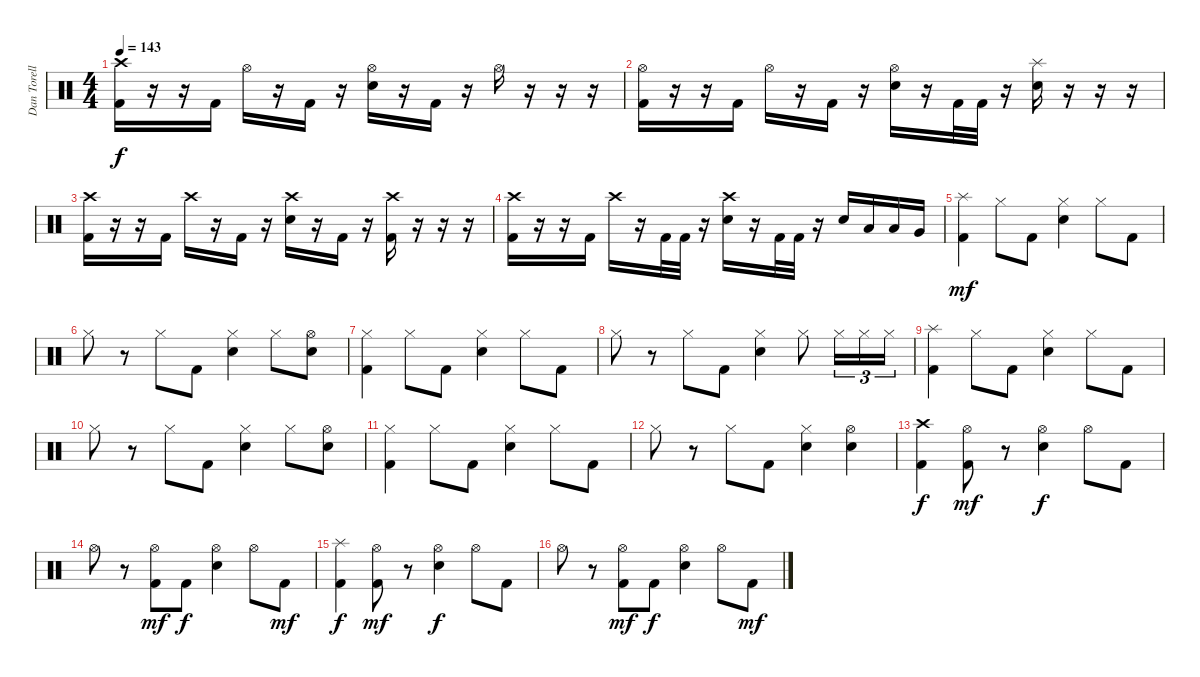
\track ("Dan Torelli" "Dan Torell") {instrument percussion}
\staff {score}
\articulation defaults
\ts (4 4)
\tempo 143
\clef neutral
\ks c
("Crash high (hit)" "Kick (hit) 2").16{dy f} r.16 r.16 "Kick (hit) 2".16 "Hi-Hat (open)".16 r.16 "Kick (hit) 2".16 r.16 ("Hi-Hat (open)" "Snare (hit) 2").16 r.16 "Kick (hit) 2".16 r.16 "Hi-Hat (open)".16 r.16 r.16 r.16 |
("Hi-Hat (open)" "Kick (hit) 2").16 r.16 r.16 "Kick (hit) 2".16 "Hi-Hat (open)".16 r.16 "Kick (hit) 2".16 r.16 ("Hi-Hat (open)" "Snare (hit) 2").16 r.16 "Kick (hit) 2".32 "Kick (hit) 2".32 r.16 ("Splash (hit)" "Snare (hit) 2").16 r.16 r.16 r.16 |
("Crash high (hit)" "Kick (hit) 2").16 r.16 r.16 "Kick (hit) 2".16 "Crash high (hit)".16 r.16 "Kick (hit) 2".16 r.16 ("Crash high (hit)" "Snare (hit) 2").16 r.16 "Kick (hit) 2".16 r.16 ("Crash high (hit)" "Kick (hit) 2").16 r.16 r.16 r.16 |
("Crash high (hit)" "Kick (hit) 2").16 r.16 r.16 "Kick (hit) 2".16 "Crash high (hit)".16 r.16 "Kick (hit) 2".32 "Kick (hit) 2".32 r.16 ("Crash high (hit)" "Snare (hit) 2").16 r.16 "Kick (hit) 2".32 "Kick (hit) 2".32 r.16 "Snare (hit) 2".16 "Low Tom (hit)".16 "Low Tom (hit)".16 "Very Low Tom (hit)".16 |
("Splash (hit)" "Kick (hit) 2").4{dy mf} "Hi-Hat (closed)".8 "Kick (hit) 2".8 ("Hi-Hat (closed)" "Snare (hit) 2").4 "Hi-Hat (closed)".8 "Kick (hit) 2".8 |
"Hi-Hat (closed)".8 r.8 "Hi-Hat (closed)".8 "Kick (hit) 2".8 ("Hi-Hat (closed)" "Snare (hit) 2").4 "Hi-Hat (closed)".8 ("Hi-Hat (open)" "Snare (hit) 2").8 |
("Hi-Hat (closed)" "Kick (hit) 2").4 "Hi-Hat (closed)".8 "Kick (hit) 2".8 ("Hi-Hat (closed)" "Snare (hit) 2").4 "Hi-Hat (closed)".8 "Kick (hit) 2".8 |
"Hi-Hat (closed)".8 r.8 "Hi-Hat (closed)".8 "Kick (hit) 2".8 ("Hi-Hat (closed)" "Snare (hit) 2").4 "Hi-Hat (closed)".8 "Hi-Hat (closed)".16{tu (3 2)} "Hi-Hat (closed)".16{tu (3 2)} "Hi-Hat (closed)".16{tu (3 2)} |
("Splash (hit)" "Kick (hit) 2").4 "Hi-Hat (closed)".8 "Kick (hit) 2".8 ("Hi-Hat (closed)" "Snare (hit) 2").4 "Hi-Hat (closed)".8 "Kick (hit) 2".8 |
"Hi-Hat (closed)".8 r.8 "Hi-Hat (closed)".8 "Kick (hit) 2".8 ("Hi-Hat (closed)" "Snare (hit) 2").4 "Hi-Hat (closed)".8 ("Hi-Hat (open)" "Snare (hit) 2").8 |
("Hi-Hat (closed)" "Kick (hit) 2").4 "Hi-Hat (closed)".8 "Kick (hit) 2".8 ("Hi-Hat (closed)" "Snare (hit) 2").4 "Hi-Hat (closed)".8 "Kick (hit) 2".8 |
"Hi-Hat (closed)".8 r.8 "Hi-Hat (closed)".8 "Kick (hit) 2".8 ("Hi-Hat (closed)" "Snare (hit) 2").4 ("Hi-Hat (open)" "Snare (hit) 2").4 |
("Crash high (hit)" "Kick (hit) 2").4{dy f} ("Hi-Hat (open)" "Kick (hit) 2").8{dy mf} r.8 ("Hi-Hat (open)" "Snare (hit) 2").4{dy f} "Hi-Hat (open)".8 "Kick (hit) 2".8 |
"Hi-Hat (open)".8 r.8 ("Hi-Hat (open)" "Kick (hit) 2").8{dy mf} "Kick (hit) 2".8{dy f} ("Hi-Hat (open)" "Snare (hit) 2").4 "Hi-Hat (open)".8 "Kick (hit) 2".8{dy mf} |
("Splash (hit)" "Kick (hit) 2").4{dy f} ("Hi-Hat (open)" "Kick (hit) 2").8{dy mf} r.8 ("Hi-Hat (open)" "Snare (hit) 2").4{dy f} "Hi-Hat (open)".8 "Kick (hit) 2".8 |
"Hi-Hat (open)".8 r.8 ("Hi-Hat (open)" "Kick (hit) 2").8{dy mf} "Kick (hit) 2".8{dy f} ("Hi-Hat (open)" "Snare (hit) 2").4 "Hi-Hat (open)".8 "Kick (hit) 2".8{dy mf}
